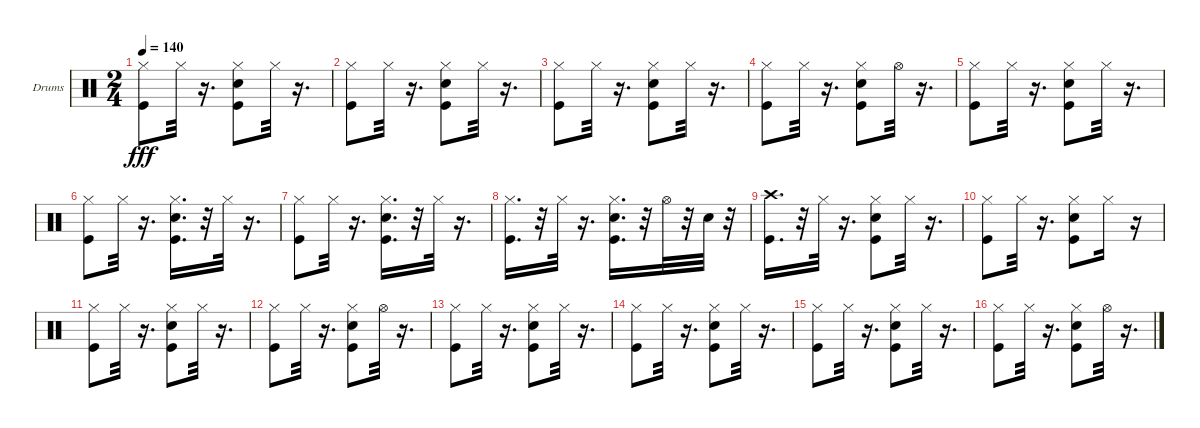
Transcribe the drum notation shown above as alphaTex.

\bracketExtendMode groupsimilarinstruments
\firstSystemTrackNameOrientation horizontal
\otherSystemsTrackNameOrientation horizontal
\track ("Ударные" "Drums") {instrument percussion}
\staff {score}
\articulation defaults
\ts (2 4)
\tempo 140
\clef neutral
\ks c
("Kick (hit)" "Hi-Hat (closed)").8{dy fff} "Hi-Hat (closed)".32 r.16{d} ("Hi-Hat (closed)" "Snare (hit) 2" "Kick (hit)").8 "Hi-Hat (closed)".32 r.16{d} |
("Kick (hit)" "Hi-Hat (closed)").8 "Hi-Hat (closed)".32 r.16{d} ("Hi-Hat (closed)" "Snare (hit) 2" "Kick (hit)").8 "Hi-Hat (closed)".32 r.16{d} |
("Kick (hit)" "Hi-Hat (closed)").8 "Hi-Hat (closed)".32 r.16{d} ("Snare (hit) 2" "Kick (hit)" "Hi-Hat (closed)").8 "Hi-Hat (closed)".32 r.16{d} |
("Kick (hit)" "Hi-Hat (closed)").8 "Hi-Hat (closed)".32 r.16{d} ("Snare (hit) 2" "Kick (hit)" "Hi-Hat (closed)").8 "Hi-Hat (open)".32 r.16{d} |
("Kick (hit)" "Hi-Hat (closed)").8 "Hi-Hat (closed)".32 r.16{d} ("Snare (hit) 2" "Kick (hit)" "Hi-Hat (closed)").8 "Hi-Hat (closed)".32 r.16{d} |
("Kick (hit)" "Hi-Hat (closed)").8 "Hi-Hat (closed)".32 r.16{d} ("Hi-Hat (closed)" "Snare (hit) 2" "Kick (hit)").16{d} r.32 "Hi-Hat (closed)".32 r.16{d} |
("Kick (hit)" "Hi-Hat (closed)").8 "Hi-Hat (closed)".32 r.16{d} ("Snare (hit) 2" "Kick (hit)" "Hi-Hat (closed)").16{d} r.32 "Hi-Hat (closed)".32 r.16{d} |
("Hi-Hat (closed)" "Kick (hit)").16{d} r.32 "Hi-Hat (closed)".32 r.16{d} ("Kick (hit)" "Hi-Hat (closed)" "Snare (hit) 2").16{d} r.32 "Hi-Hat (open)".32 r.32 "Snare (hit) 2".32 r.32 |
("Kick (hit)" "Crash high (hit)").16{d} r.32 "Hi-Hat (closed)".32 r.16{d} ("Kick (hit)" "Snare (hit) 2" "Hi-Hat (closed)").8 "Hi-Hat (closed)".32 r.16{d} |
("Kick (hit)" "Hi-Hat (closed)").8 "Hi-Hat (closed)".32 r.16{d} ("Kick (hit)" "Hi-Hat (closed)" "Snare (hit) 2").8 "Hi-Hat (closed)".16 r.16 |
("Kick (hit)" "Hi-Hat (closed)").8 "Hi-Hat (closed)".32 r.16{d} ("Hi-Hat (closed)" "Snare (hit) 2" "Kick (hit)").8 "Hi-Hat (closed)".32 r.16{d} |
("Kick (hit)" "Hi-Hat (closed)").8 "Hi-Hat (closed)".32 r.16{d} ("Kick (hit)" "Snare (hit) 2" "Hi-Hat (closed)").8 "Hi-Hat (open)".32 r.16{d} |
("Kick (hit)" "Hi-Hat (closed)").8 "Hi-Hat (closed)".32 r.16{d} ("Snare (hit) 2" "Kick (hit)" "Hi-Hat (closed)").8 "Hi-Hat (closed)".32 r.16{d} |
("Kick (hit)" "Hi-Hat (closed)").8 "Hi-Hat (closed)".32 r.16{d} ("Kick (hit)" "Hi-Hat (closed)" "Snare (hit) 2").8 "Hi-Hat (closed)".32 r.16{d} |
("Kick (hit)" "Hi-Hat (closed)").8 "Hi-Hat (closed)".32 r.16{d} ("Snare (hit) 2" "Kick (hit)" "Hi-Hat (closed)").8 "Hi-Hat (closed)".32 r.16{d} |
("Kick (hit)" "Hi-Hat (closed)").8 "Hi-Hat (closed)".32 r.16{d} ("Snare (hit) 2" "Kick (hit)" "Hi-Hat (closed)").8 "Hi-Hat (open)".32 r.16{d}
